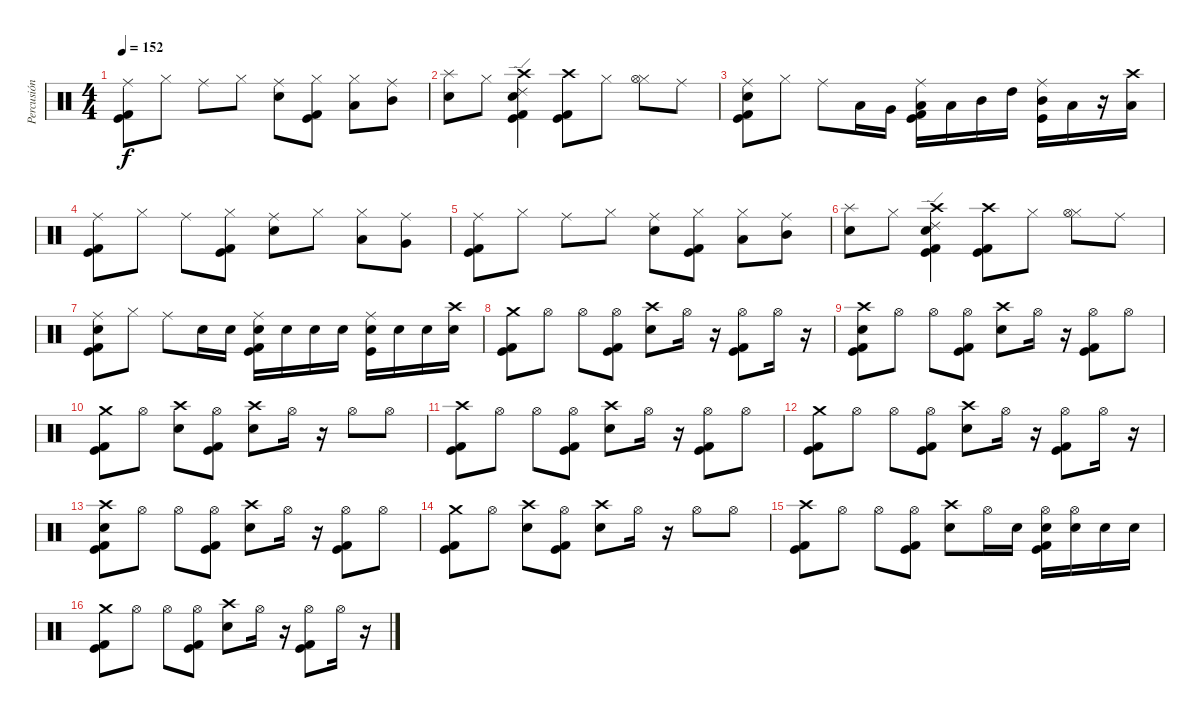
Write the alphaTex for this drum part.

\track ("Percusión" "Percusión") {instrument percussion}
\staff {score}
\articulation defaults
\ts (4 4)
\tempo 152
\clef neutral
\ks c
("Ride (middle)" "Kick (hit) 2" "Kick (hit)").8{dy f} "Hi-Hat (closed)".8 "Ride (middle)".8 "Hi-Hat (closed)".8 ("Ride (middle)" "Electric Snare (hit)").8 ("Hi-Hat (closed)" "Kick (hit) 2" "Kick (hit)").8 ("Hi-Hat (closed)" "Low Tom (hit)").8 ("Ride (middle)" "Mid Tom (hit)").8 |
("Splash (hit)" "Electric Snare (hit)").8 "Hi-Hat (closed)".8 ("Ride (edge) 2" "Crash high (hit)" "Electric Snare (hit)" "Kick (hit) 2" "Kick (hit)").4 ("Crash high (hit)" "Kick (hit) 2" "Kick (hit)").8 "Hi-Hat (closed)".8 ("Hi-Hat (closed)" "Hi-Hat (open)").8 "Ride (middle)".8 |
("Ride (middle)" "Electric Snare (hit)" "Kick (hit) 2" "Kick (hit)").8 "Hi-Hat (closed)".8 "Ride (middle)".8 "Low Floor Tom (hit)".16 "Very Low Tom (hit)".16 ("Ride (middle)" "Low Tom (hit)" "Kick (hit) 2" "Kick (hit)").16 "Low Tom (hit)".16 "Mid Tom (hit)".16 "High Tom (hit)".16 ("Ride (middle)" "Mid Tom (hit)" "Kick (hit)").16 "Low Tom (hit)".16 r.16 ("Crash high (hit)" "Low Floor Tom (hit)").16 |
("Ride (middle)" "Kick (hit) 2" "Kick (hit)").8 "Hi-Hat (closed)".8 "Ride (middle)".8 ("Hi-Hat (closed)" "Kick (hit) 2" "Kick (hit)").8 ("Ride (middle)" "Electric Snare (hit)").8 "Hi-Hat (closed)".8 ("Hi-Hat (closed)" "Low Floor Tom (hit)").8 ("Ride (middle)" "Very Low Tom (hit)").8 |
("Ride (middle)" "Kick (hit) 2" "Kick (hit)").8 "Hi-Hat (closed)".8 "Ride (middle)".8 "Hi-Hat (closed)".8 ("Ride (middle)" "Electric Snare (hit)").8 ("Hi-Hat (closed)" "Kick (hit) 2" "Kick (hit)").8 ("Hi-Hat (closed)" "Low Tom (hit)").8 ("Ride (middle)" "Mid Tom (hit)").8 |
("Splash (hit)" "Electric Snare (hit)").8 "Hi-Hat (closed)".8 ("Ride (edge) 2" "Crash high (hit)" "Electric Snare (hit)" "Kick (hit) 2" "Kick (hit)").4 ("Crash high (hit)" "Kick (hit) 2" "Kick (hit)").8 "Hi-Hat (closed)".8 ("Hi-Hat (closed)" "Hi-Hat (open)").8 "Ride (middle)".8 |
("Ride (middle)" "Electric Snare (hit)" "Kick (hit) 2" "Kick (hit)").8 "Hi-Hat (closed)".8 "Ride (middle)".8 "Electric Snare (hit)".16 "Electric Snare (hit)".16 ("Ride (middle)" "Electric Snare (hit)" "Kick (hit) 2" "Kick (hit)").16 "Electric Snare (hit)".16 "Electric Snare (hit)".16 "Electric Snare (hit)".16 ("Ride (middle)" "Electric Snare (hit)" "Kick (hit)").16 "Electric Snare (hit)".16 "Electric Snare (hit)".16 ("Crash high (hit)" "Electric Snare (hit)").16 |
("Crash medium (hit)" "Kick (hit) 2" "Kick (hit)").8 "Hi-Hat (open)".8 "Hi-Hat (open)".8 ("Hi-Hat (open)" "Kick (hit) 2" "Kick (hit)").8 ("Crash high (hit)" "Electric Snare (hit)").8 "Hi-Hat (open)".16 r.16 ("Hi-Hat (open)" "Kick (hit) 2" "Kick (hit)").8 "Hi-Hat (open)".16 r.16 |
("Crash high (hit)" "Electric Snare (hit)" "Kick (hit) 2" "Kick (hit)").8 "Hi-Hat (open)".8 "Hi-Hat (open)".8 ("Hi-Hat (open)" "Kick (hit) 2" "Kick (hit)").8 ("Crash high (hit)" "Electric Snare (hit)").8 "Hi-Hat (open)".16 r.16 ("Hi-Hat (open)" "Kick (hit) 2" "Kick (hit)").8 "Hi-Hat (open)".8 |
("Crash medium (hit)" "Kick (hit) 2" "Kick (hit)").8 "Hi-Hat (open)".8 ("Crash high (hit)" "Electric Snare (hit)").8 ("Hi-Hat (open)" "Kick (hit) 2" "Kick (hit)").8 ("Crash high (hit)" "Electric Snare (hit)").8 "Hi-Hat (open)".16 r.16 "Hi-Hat (open)".8 "Hi-Hat (open)".8 |
("Crash high (hit)" "Kick (hit) 2" "Kick (hit)").8 "Hi-Hat (open)".8 "Hi-Hat (open)".8 ("Hi-Hat (open)" "Kick (hit) 2" "Kick (hit)").8 ("Crash high (hit)" "Electric Snare (hit)").8 "Hi-Hat (open)".16 r.16 ("Hi-Hat (open)" "Kick (hit) 2" "Kick (hit)").8 "Hi-Hat (open)".8 |
("Crash medium (hit)" "Kick (hit) 2" "Kick (hit)").8 "Hi-Hat (open)".8 "Hi-Hat (open)".8 ("Hi-Hat (open)" "Kick (hit) 2" "Kick (hit)").8 ("Crash high (hit)" "Electric Snare (hit)").8 "Hi-Hat (open)".16 r.16 ("Hi-Hat (open)" "Kick (hit) 2" "Kick (hit)").8 "Hi-Hat (open)".16 r.16 |
("Crash high (hit)" "Electric Snare (hit)" "Kick (hit) 2" "Kick (hit)").8 "Hi-Hat (open)".8 "Hi-Hat (open)".8 ("Hi-Hat (open)" "Kick (hit) 2" "Kick (hit)").8 ("Crash high (hit)" "Electric Snare (hit)").8 "Hi-Hat (open)".16 r.16 ("Hi-Hat (open)" "Kick (hit) 2" "Kick (hit)").8 "Hi-Hat (open)".8 |
("Crash medium (hit)" "Kick (hit) 2" "Kick (hit)").8 "Hi-Hat (open)".8 ("Crash high (hit)" "Electric Snare (hit)").8 ("Hi-Hat (open)" "Kick (hit) 2" "Kick (hit)").8 ("Crash high (hit)" "Electric Snare (hit)").8 "Hi-Hat (open)".16 r.16 "Hi-Hat (open)".8 "Hi-Hat (open)".8 |
("Crash high (hit)" "Kick (hit) 2" "Kick (hit)").8 "Hi-Hat (open)".8 "Hi-Hat (open)".8 ("Hi-Hat (open)" "Kick (hit) 2" "Kick (hit)").8 ("Crash high (hit)" "Electric Snare (hit)").8 "Hi-Hat (open)".16 "Electric Snare (hit)".16 ("Hi-Hat (open)" "Electric Snare (hit)" "Kick (hit) 2" "Kick (hit)").16 ("Hi-Hat (open)" "Electric Snare (hit)").16 "Electric Snare (hit)".16 "Electric Snare (hit)".16 |
("Crash medium (hit)" "Kick (hit) 2" "Kick (hit)").8 "Hi-Hat (open)".8 "Hi-Hat (open)".8 ("Hi-Hat (open)" "Kick (hit) 2" "Kick (hit)").8 ("Crash high (hit)" "Electric Snare (hit)").8 "Hi-Hat (open)".16 r.16 ("Hi-Hat (open)" "Kick (hit) 2" "Kick (hit)").8 "Hi-Hat (open)".16 r.16
